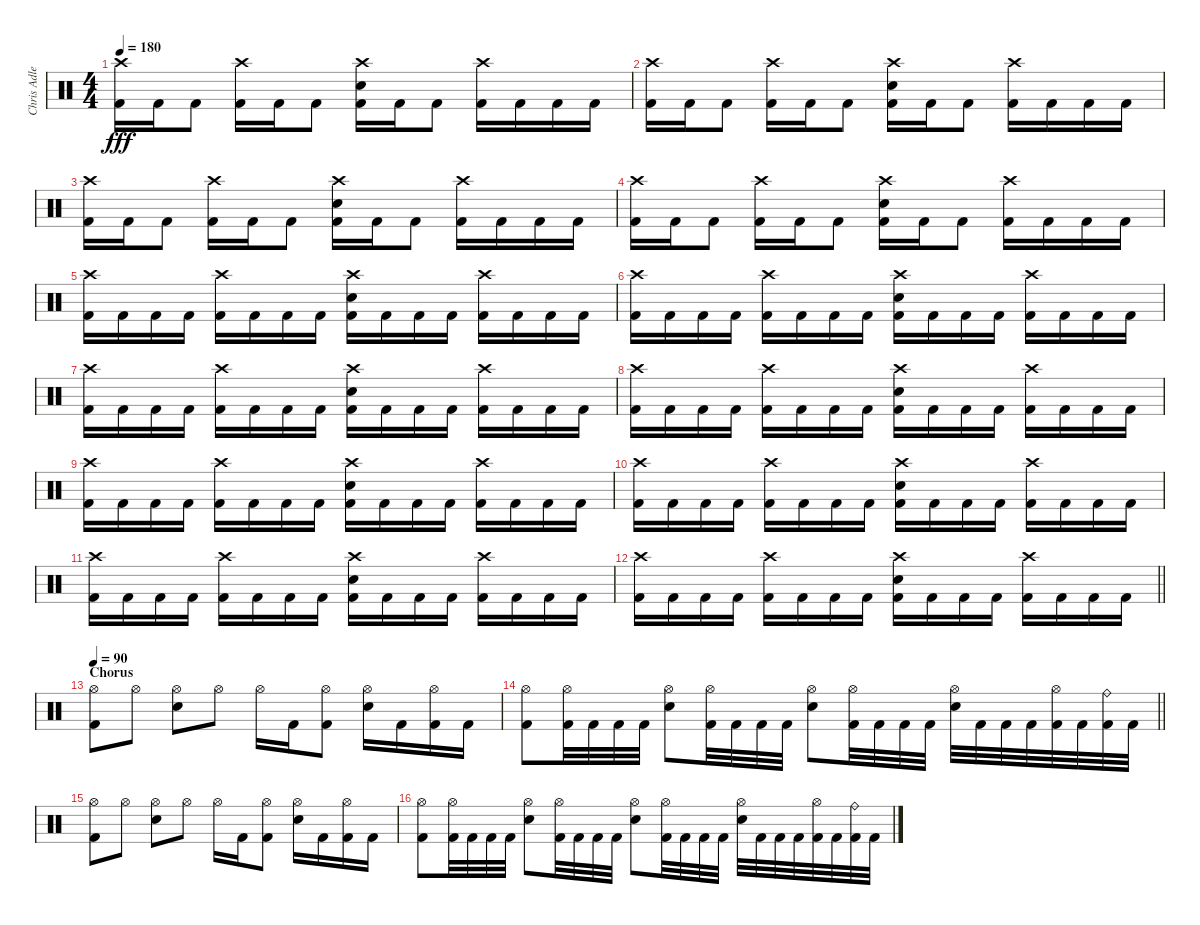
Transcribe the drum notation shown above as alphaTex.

\track ("Chris Adler" "Chris Adle") {instrument percussion}
\staff {score}
\articulation defaults
\ts (4 4)
\tempo 180
\clef neutral
\ks c
("Crash high (hit)" "Kick (hit) 2").16{dy fff} "Kick (hit) 2".16 "Kick (hit) 2".8 ("Crash high (hit)" "Kick (hit) 2").16 "Kick (hit) 2".16 "Kick (hit) 2".8 ("Crash high (hit)" "Electric Snare (hit)" "Kick (hit) 2").16 "Kick (hit) 2".16 "Kick (hit) 2".8 ("Crash high (hit)" "Kick (hit) 2").16 "Kick (hit) 2".16 "Kick (hit) 2".16 "Kick (hit) 2".16 |
("Crash high (hit)" "Kick (hit) 2").16 "Kick (hit) 2".16 "Kick (hit) 2".8 ("Crash high (hit)" "Kick (hit) 2").16 "Kick (hit) 2".16 "Kick (hit) 2".8 ("Crash high (hit)" "Electric Snare (hit)" "Kick (hit) 2").16 "Kick (hit) 2".16 "Kick (hit) 2".8 ("Crash high (hit)" "Kick (hit) 2").16 "Kick (hit) 2".16 "Kick (hit) 2".16 "Kick (hit) 2".16 |
("Crash high (hit)" "Kick (hit) 2").16 "Kick (hit) 2".16 "Kick (hit) 2".8 ("Crash high (hit)" "Kick (hit) 2").16 "Kick (hit) 2".16 "Kick (hit) 2".8 ("Crash high (hit)" "Electric Snare (hit)" "Kick (hit) 2").16 "Kick (hit) 2".16 "Kick (hit) 2".8 ("Crash high (hit)" "Kick (hit) 2").16 "Kick (hit) 2".16 "Kick (hit) 2".16 "Kick (hit) 2".16 |
("Crash high (hit)" "Kick (hit) 2").16 "Kick (hit) 2".16 "Kick (hit) 2".8 ("Crash high (hit)" "Kick (hit) 2").16 "Kick (hit) 2".16 "Kick (hit) 2".8 ("Crash high (hit)" "Electric Snare (hit)" "Kick (hit) 2").16 "Kick (hit) 2".16 "Kick (hit) 2".8 ("Crash high (hit)" "Kick (hit) 2").16 "Kick (hit) 2".16 "Kick (hit) 2".16 "Kick (hit) 2".16 |
("Crash high (hit)" "Kick (hit) 2").16 "Kick (hit) 2".16 "Kick (hit) 2".16 "Kick (hit) 2".16 ("Crash high (hit)" "Kick (hit) 2").16 "Kick (hit) 2".16 "Kick (hit) 2".16 "Kick (hit) 2".16 ("Crash high (hit)" "Electric Snare (hit)" "Kick (hit) 2").16 "Kick (hit) 2".16 "Kick (hit) 2".16 "Kick (hit) 2".16 ("Crash high (hit)" "Kick (hit) 2").16 "Kick (hit) 2".16 "Kick (hit) 2".16 "Kick (hit) 2".16 |
("Crash high (hit)" "Kick (hit) 2").16 "Kick (hit) 2".16 "Kick (hit) 2".16 "Kick (hit) 2".16 ("Crash high (hit)" "Kick (hit) 2").16 "Kick (hit) 2".16 "Kick (hit) 2".16 "Kick (hit) 2".16 ("Crash high (hit)" "Electric Snare (hit)" "Kick (hit) 2").16 "Kick (hit) 2".16 "Kick (hit) 2".16 "Kick (hit) 2".16 ("Crash high (hit)" "Kick (hit) 2").16 "Kick (hit) 2".16 "Kick (hit) 2".16 "Kick (hit) 2".16 |
("Crash high (hit)" "Kick (hit) 2").16 "Kick (hit) 2".16 "Kick (hit) 2".16 "Kick (hit) 2".16 ("Crash high (hit)" "Kick (hit) 2").16 "Kick (hit) 2".16 "Kick (hit) 2".16 "Kick (hit) 2".16 ("Crash high (hit)" "Electric Snare (hit)" "Kick (hit) 2").16 "Kick (hit) 2".16 "Kick (hit) 2".16 "Kick (hit) 2".16 ("Crash high (hit)" "Kick (hit) 2").16 "Kick (hit) 2".16 "Kick (hit) 2".16 "Kick (hit) 2".16 |
("Crash high (hit)" "Kick (hit) 2").16 "Kick (hit) 2".16 "Kick (hit) 2".16 "Kick (hit) 2".16 ("Crash high (hit)" "Kick (hit) 2").16 "Kick (hit) 2".16 "Kick (hit) 2".16 "Kick (hit) 2".16 ("Crash high (hit)" "Electric Snare (hit)" "Kick (hit) 2").16 "Kick (hit) 2".16 "Kick (hit) 2".16 "Kick (hit) 2".16 ("Crash high (hit)" "Kick (hit) 2").16 "Kick (hit) 2".16 "Kick (hit) 2".16 "Kick (hit) 2".16 |
("Crash high (hit)" "Kick (hit) 2").16 "Kick (hit) 2".16 "Kick (hit) 2".16 "Kick (hit) 2".16 ("Crash high (hit)" "Kick (hit) 2").16 "Kick (hit) 2".16 "Kick (hit) 2".16 "Kick (hit) 2".16 ("Crash high (hit)" "Electric Snare (hit)" "Kick (hit) 2").16 "Kick (hit) 2".16 "Kick (hit) 2".16 "Kick (hit) 2".16 ("Crash high (hit)" "Kick (hit) 2").16 "Kick (hit) 2".16 "Kick (hit) 2".16 "Kick (hit) 2".16 |
("Crash high (hit)" "Kick (hit) 2").16 "Kick (hit) 2".16 "Kick (hit) 2".16 "Kick (hit) 2".16 ("Crash high (hit)" "Kick (hit) 2").16 "Kick (hit) 2".16 "Kick (hit) 2".16 "Kick (hit) 2".16 ("Crash high (hit)" "Electric Snare (hit)" "Kick (hit) 2").16 "Kick (hit) 2".16 "Kick (hit) 2".16 "Kick (hit) 2".16 ("Crash high (hit)" "Kick (hit) 2").16 "Kick (hit) 2".16 "Kick (hit) 2".16 "Kick (hit) 2".16 |
("Crash high (hit)" "Kick (hit) 2").16 "Kick (hit) 2".16 "Kick (hit) 2".16 "Kick (hit) 2".16 ("Crash high (hit)" "Kick (hit) 2").16 "Kick (hit) 2".16 "Kick (hit) 2".16 "Kick (hit) 2".16 ("Crash high (hit)" "Electric Snare (hit)" "Kick (hit) 2").16 "Kick (hit) 2".16 "Kick (hit) 2".16 "Kick (hit) 2".16 ("Crash high (hit)" "Kick (hit) 2").16 "Kick (hit) 2".16 "Kick (hit) 2".16 "Kick (hit) 2".16 |
\barLineRight lightlight
("Crash high (hit)" "Kick (hit) 2").16 "Kick (hit) 2".16 "Kick (hit) 2".16 "Kick (hit) 2".16 ("Crash high (hit)" "Kick (hit) 2").16 "Kick (hit) 2".16 "Kick (hit) 2".16 "Kick (hit) 2".16 ("Crash high (hit)" "Electric Snare (hit)" "Kick (hit) 2").16 "Kick (hit) 2".16 "Kick (hit) 2".16 "Kick (hit) 2".16 ("Crash high (hit)" "Kick (hit) 2").16 "Kick (hit) 2".16 "Kick (hit) 2".16 "Kick (hit) 2".16 |
\section ("" "Chorus")
\tempo 90
("Hi-Hat (open)" "Kick (hit) 2").8 "Hi-Hat (open)".8 ("Hi-Hat (open)" "Electric Snare (hit)").8 "Hi-Hat (open)".8 "Hi-Hat (open)".16 "Kick (hit) 2".16 ("Hi-Hat (open)" "Kick (hit) 2").8 ("Hi-Hat (open)" "Electric Snare (hit)").16 "Kick (hit) 2".16 ("Hi-Hat (open)" "Kick (hit) 2").16 "Kick (hit) 2".16 |
\barLineRight lightlight
("Hi-Hat (open)" "Kick (hit) 2").8 ("Hi-Hat (open)" "Kick (hit) 2").32 "Kick (hit) 2".32 "Kick (hit) 2".32 "Kick (hit) 2".32 ("Hi-Hat (open)" "Electric Snare (hit)").8 ("Hi-Hat (open)" "Kick (hit) 2").32 "Kick (hit) 2".32 "Kick (hit) 2".32 "Kick (hit) 2".32 ("Hi-Hat (open)" "Electric Snare (hit)").8 ("Hi-Hat (open)" "Kick (hit) 2").32 "Kick (hit) 2".32 "Kick (hit) 2".32 "Kick (hit) 2".32 ("Hi-Hat (open)" "Electric Snare (hit)").32 "Kick (hit) 2".32 "Kick (hit) 2".32 "Kick (hit) 2".32 ("Hi-Hat (open)" "Kick (hit) 2").32 "Kick (hit) 2".32 ("Ride (bell)" "Kick (hit) 2").32 "Kick (hit) 2".32 |
\section ("" "")
("Hi-Hat (open)" "Kick (hit) 2").8 "Hi-Hat (open)".8 ("Hi-Hat (open)" "Electric Snare (hit)").8 "Hi-Hat (open)".8 "Hi-Hat (open)".16 "Kick (hit) 2".16 ("Hi-Hat (open)" "Kick (hit) 2").8 ("Hi-Hat (open)" "Electric Snare (hit)").16 "Kick (hit) 2".16 ("Hi-Hat (open)" "Kick (hit) 2").16 "Kick (hit) 2".16 |
("Hi-Hat (open)" "Kick (hit) 2").8 ("Hi-Hat (open)" "Kick (hit) 2").32 "Kick (hit) 2".32 "Kick (hit) 2".32 "Kick (hit) 2".32 ("Hi-Hat (open)" "Electric Snare (hit)").8 ("Hi-Hat (open)" "Kick (hit) 2").32 "Kick (hit) 2".32 "Kick (hit) 2".32 "Kick (hit) 2".32 ("Hi-Hat (open)" "Electric Snare (hit)").8 ("Hi-Hat (open)" "Kick (hit) 2").32 "Kick (hit) 2".32 "Kick (hit) 2".32 "Kick (hit) 2".32 ("Hi-Hat (open)" "Electric Snare (hit)").32 "Kick (hit) 2".32 "Kick (hit) 2".32 "Kick (hit) 2".32 ("Hi-Hat (open)" "Kick (hit) 2").32 "Kick (hit) 2".32 ("Ride (bell)" "Kick (hit) 2").32 "Kick (hit) 2".32
